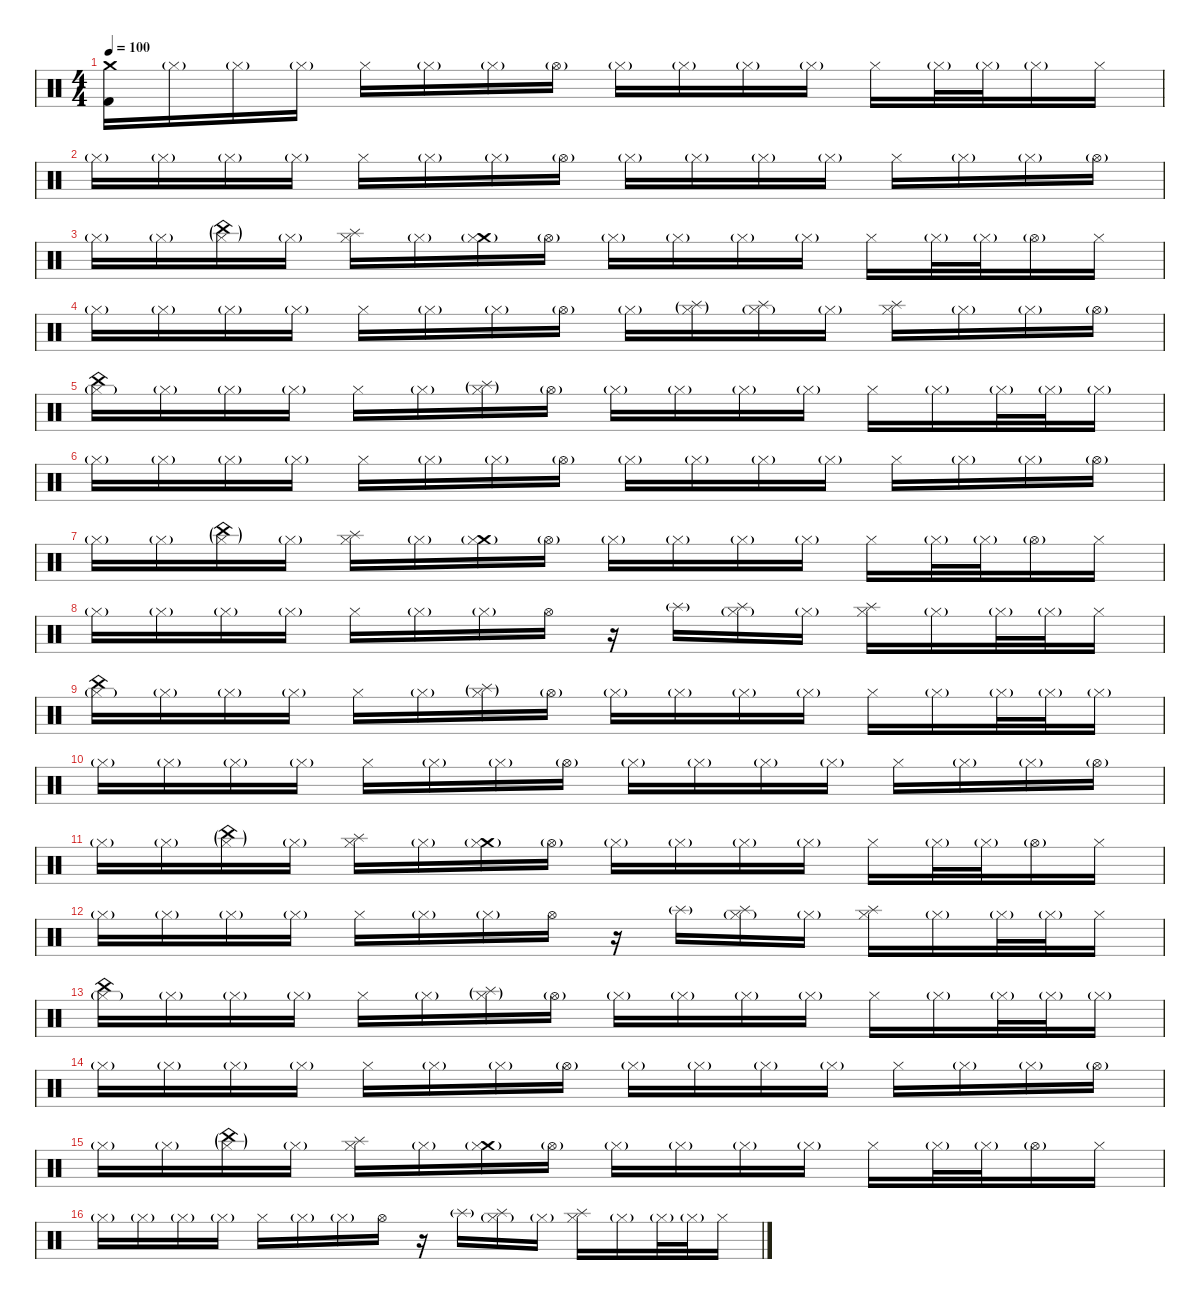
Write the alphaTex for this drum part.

\defaultSystemsLayout 4
\hideDynamics
\bracketExtendMode nobrackets
\singleTrackTrackNamePolicy hidden
\multiTrackTrackNamePolicy hidden
\firstSystemTrackNameMode fullname
\firstSystemTrackNameOrientation horizontal
\otherSystemsTrackNameOrientation horizontal
\track ("Drums" "drm.") {instrument percussion}
\staff {score}
\articulation defaults
\ts (4 4)
\beaming (8 2 2 2 2)
\tempo 100
\clef neutral
\ks c
("Crash medium (hit)" "Kick (hit) 2").16{dy f beam Down} "Hi-Hat (closed)"{g}.16{dy mf beam Down} "Hi-Hat (closed)"{g}.16{beam Down} "Hi-Hat (closed)"{g}.16{beam Down} "Hi-Hat (closed)".16{dy f beam Down} "Hi-Hat (closed)"{g}.16{dy mf beam Down} "Hi-Hat (closed)"{g}.16{beam Down} "Hi-Hat (open)"{g}.16{beam Down} "Hi-Hat (closed)"{g}.16{beam Down} "Hi-Hat (closed)"{g}.16{beam Down} "Hi-Hat (closed)"{g}.16{beam Down} "Hi-Hat (closed)"{g}.16{beam Down} "Hi-Hat (closed)".16{dy f beam Down} "Hi-Hat (closed)"{g}.32{dy mf beam Down} "Hi-Hat (closed)"{g}.32{beam Down} "Hi-Hat (closed)"{g}.16{beam Down} "Hi-Hat (closed)".16{dy f beam Down} |
"Hi-Hat (closed)"{g}.16{dy mf beam Down} "Hi-Hat (closed)"{g}.16{beam Down} "Hi-Hat (closed)"{g}.16{beam Down} "Hi-Hat (closed)"{g}.16{beam Down} "Hi-Hat (closed)".16{dy f beam Down} "Hi-Hat (closed)"{g}.16{dy mf beam Down} "Hi-Hat (closed)"{g}.16{beam Down} "Hi-Hat (open)"{g}.16{beam Down} "Hi-Hat (closed)"{g}.16{beam Down} "Hi-Hat (closed)"{g}.16{beam Down} "Hi-Hat (closed)"{g}.16{beam Down} "Hi-Hat (closed)"{g}.16{beam Down} "Hi-Hat (closed)".16{dy f beam Down} "Hi-Hat (closed)"{g}.16{dy mf beam Down} "Hi-Hat (closed)"{g}.16{beam Down} "Hi-Hat (open)"{g}.16{beam Down} |
"Hi-Hat (closed)"{g}.16{beam Down} "Hi-Hat (closed)"{g}.16{beam Down} ("China (hit)"{g} "Hi-Hat (closed)"{g}).16{beam Down} "Hi-Hat (closed)"{g}.16{beam Down} ("Splash (hit)" "Hi-Hat (closed)").16{dy f beam Down} "Hi-Hat (closed)"{g}.16{dy mf beam Down} ("Crash medium (hit)"{g} "Hi-Hat (closed)"{g}).16{beam Down} "Hi-Hat (open)"{g}.16{beam Down} "Hi-Hat (closed)"{g}.16{beam Down} "Hi-Hat (closed)"{g}.16{beam Down} "Hi-Hat (closed)"{g}.16{beam Down} "Hi-Hat (closed)"{g}.16{beam Down} "Hi-Hat (closed)".16{dy f beam Down} "Hi-Hat (closed)"{g}.32{dy mf beam Down} "Hi-Hat (closed)"{g}.32{beam Down} "Hi-Hat (open)"{g}.16{beam Down} "Hi-Hat (closed)".16{dy f beam Down} |
"Hi-Hat (closed)"{g}.16{dy mf beam Down} "Hi-Hat (closed)"{g}.16{beam Down} "Hi-Hat (closed)"{g}.16{beam Down} "Hi-Hat (closed)"{g}.16{beam Down} "Hi-Hat (closed)".16{dy f beam Down} "Hi-Hat (closed)"{g}.16{dy mf beam Down} "Hi-Hat (closed)"{g}.16{beam Down} "Hi-Hat (open)"{g}.16{beam Down} "Hi-Hat (closed)"{g}.16{beam Down} ("Splash (hit)"{g} "Hi-Hat (closed)"{g}).16{beam Down} ("Splash (hit)" "Hi-Hat (closed)"{g}).16{dy f beam Down} "Hi-Hat (closed)"{g}.16{dy mf beam Down} ("Splash (hit)" "Hi-Hat (closed)").16{dy f beam Down} "Hi-Hat (closed)"{g}.16{dy mf beam Down} "Hi-Hat (closed)"{g}.16{beam Down} "Hi-Hat (open)"{g}.16{beam Down} |
("China (hit)" "Hi-Hat (closed)"{g}).16{dy f beam Down} "Hi-Hat (closed)"{g}.16{dy mf beam Down} "Hi-Hat (closed)"{g}.16{beam Down} "Hi-Hat (closed)"{g}.16{beam Down} "Hi-Hat (closed)".16{dy f beam Down} "Hi-Hat (closed)"{g}.16{dy mf beam Down} ("Splash (hit)"{g} "Hi-Hat (closed)"{g}).16{beam Down} "Hi-Hat (open)"{g}.16{beam Down} "Hi-Hat (closed)"{g}.16{beam Down} "Hi-Hat (closed)"{g}.16{beam Down} "Hi-Hat (closed)"{g}.16{beam Down} "Hi-Hat (closed)"{g}.16{beam Down} "Hi-Hat (closed)".16{dy f beam Down} "Hi-Hat (closed)"{g}.16{dy mf beam Down} "Hi-Hat (closed)"{g}.32{beam Down} "Hi-Hat (closed)"{g}.32{beam Down} "Hi-Hat (closed)"{g}.16{beam Down} |
"Hi-Hat (closed)"{g}.16{beam Down} "Hi-Hat (closed)"{g}.16{beam Down} "Hi-Hat (closed)"{g}.16{beam Down} "Hi-Hat (closed)"{g}.16{beam Down} "Hi-Hat (closed)".16{dy f beam Down} "Hi-Hat (closed)"{g}.16{dy mf beam Down} "Hi-Hat (closed)"{g}.16{beam Down} "Hi-Hat (open)"{g}.16{beam Down} "Hi-Hat (closed)"{g}.16{beam Down} "Hi-Hat (closed)"{g}.16{beam Down} "Hi-Hat (closed)"{g}.16{beam Down} "Hi-Hat (closed)"{g}.16{beam Down} "Hi-Hat (closed)".16{dy f beam Down} "Hi-Hat (closed)"{g}.16{dy mf beam Down} "Hi-Hat (closed)"{g}.16{beam Down} "Hi-Hat (open)"{g}.16{beam Down} |
"Hi-Hat (closed)"{g}.16{beam Down} "Hi-Hat (closed)"{g}.16{beam Down} ("China (hit)"{g} "Hi-Hat (closed)"{g}).16{beam Down} "Hi-Hat (closed)"{g}.16{beam Down} ("Splash (hit)" "Hi-Hat (closed)").16{dy f beam Down} "Hi-Hat (closed)"{g}.16{dy mf beam Down} ("Crash medium (hit)"{g} "Hi-Hat (closed)"{g}).16{beam Down} "Hi-Hat (open)"{g}.16{beam Down} "Hi-Hat (closed)"{g}.16{beam Down} "Hi-Hat (closed)"{g}.16{beam Down} "Hi-Hat (closed)"{g}.16{beam Down} "Hi-Hat (closed)"{g}.16{beam Down} "Hi-Hat (closed)".16{dy f beam Down} "Hi-Hat (closed)"{g}.32{dy mf beam Down} "Hi-Hat (closed)"{g}.32{beam Down} "Hi-Hat (open)"{g}.16{beam Down} "Hi-Hat (closed)".16{dy f beam Down} |
"Hi-Hat (closed)"{g}.16{dy mf beam Down} "Hi-Hat (closed)"{g}.16{beam Down} "Hi-Hat (closed)"{g}.16{beam Down} "Hi-Hat (closed)"{g}.16{beam Down} "Hi-Hat (closed)".16{dy f beam Down} "Hi-Hat (closed)"{g}.16{dy mf beam Down} "Hi-Hat (closed)"{g}.16{beam Down} "Hi-Hat (open)".16{dy f beam Down} r.16{beam Down} "Splash (hit)"{g}.16{dy mf beam Down} ("Splash (hit)" "Hi-Hat (closed)"{g}).16{dy f beam Down} "Hi-Hat (closed)"{g}.16{dy mf beam Down} ("Splash (hit)" "Hi-Hat (closed)").16{dy f beam Down} "Hi-Hat (closed)"{g}.16{dy mf beam Down} "Hi-Hat (closed)"{g}.32{beam Down} "Hi-Hat (closed)"{g}.32{beam Down} "Hi-Hat (closed)".16{dy f beam Down} |
("China (hit)" "Hi-Hat (closed)"{g}).16{beam Down} "Hi-Hat (closed)"{g}.16{dy mf beam Down} "Hi-Hat (closed)"{g}.16{beam Down} "Hi-Hat (closed)"{g}.16{beam Down} "Hi-Hat (closed)".16{dy f beam Down} "Hi-Hat (closed)"{g}.16{dy mf beam Down} ("Splash (hit)"{g} "Hi-Hat (closed)"{g}).16{beam Down} "Hi-Hat (open)"{g}.16{beam Down} "Hi-Hat (closed)"{g}.16{beam Down} "Hi-Hat (closed)"{g}.16{beam Down} "Hi-Hat (closed)"{g}.16{beam Down} "Hi-Hat (closed)"{g}.16{beam Down} "Hi-Hat (closed)".16{dy f beam Down} "Hi-Hat (closed)"{g}.16{dy mf beam Down} "Hi-Hat (closed)"{g}.32{beam Down} "Hi-Hat (closed)"{g}.32{beam Down} "Hi-Hat (closed)"{g}.16{beam Down} |
"Hi-Hat (closed)"{g}.16{beam Down} "Hi-Hat (closed)"{g}.16{beam Down} "Hi-Hat (closed)"{g}.16{beam Down} "Hi-Hat (closed)"{g}.16{beam Down} "Hi-Hat (closed)".16{dy f beam Down} "Hi-Hat (closed)"{g}.16{dy mf beam Down} "Hi-Hat (closed)"{g}.16{beam Down} "Hi-Hat (open)"{g}.16{beam Down} "Hi-Hat (closed)"{g}.16{beam Down} "Hi-Hat (closed)"{g}.16{beam Down} "Hi-Hat (closed)"{g}.16{beam Down} "Hi-Hat (closed)"{g}.16{beam Down} "Hi-Hat (closed)".16{dy f beam Down} "Hi-Hat (closed)"{g}.16{dy mf beam Down} "Hi-Hat (closed)"{g}.16{beam Down} "Hi-Hat (open)"{g}.16{beam Down} |
"Hi-Hat (closed)"{g}.16{beam Down} "Hi-Hat (closed)"{g}.16{beam Down} ("China (hit)"{g} "Hi-Hat (closed)"{g}).16{beam Down} "Hi-Hat (closed)"{g}.16{beam Down} ("Splash (hit)" "Hi-Hat (closed)").16{dy f beam Down} "Hi-Hat (closed)"{g}.16{dy mf beam Down} ("Crash medium (hit)"{g} "Hi-Hat (closed)"{g}).16{beam Down} "Hi-Hat (open)"{g}.16{beam Down} "Hi-Hat (closed)"{g}.16{beam Down} "Hi-Hat (closed)"{g}.16{beam Down} "Hi-Hat (closed)"{g}.16{beam Down} "Hi-Hat (closed)"{g}.16{beam Down} "Hi-Hat (closed)".16{dy f beam Down} "Hi-Hat (closed)"{g}.32{dy mf beam Down} "Hi-Hat (closed)"{g}.32{beam Down} "Hi-Hat (open)"{g}.16{beam Down} "Hi-Hat (closed)".16{dy f beam Down} |
"Hi-Hat (closed)"{g}.16{dy mf beam Down} "Hi-Hat (closed)"{g}.16{beam Down} "Hi-Hat (closed)"{g}.16{beam Down} "Hi-Hat (closed)"{g}.16{beam Down} "Hi-Hat (closed)".16{dy f beam Down} "Hi-Hat (closed)"{g}.16{dy mf beam Down} "Hi-Hat (closed)"{g}.16{beam Down} "Hi-Hat (open)".16{dy f beam Down} r.16{beam Down} "Splash (hit)"{g}.16{dy mf beam Down} ("Splash (hit)" "Hi-Hat (closed)"{g}).16{dy f beam Down} "Hi-Hat (closed)"{g}.16{dy mf beam Down} ("Splash (hit)" "Hi-Hat (closed)").16{dy f beam Down} "Hi-Hat (closed)"{g}.16{dy mf beam Down} "Hi-Hat (closed)"{g}.32{beam Down} "Hi-Hat (closed)"{g}.32{beam Down} "Hi-Hat (closed)".16{dy f beam Down} |
("China (hit)" "Hi-Hat (closed)"{g}).16{beam Down} "Hi-Hat (closed)"{g}.16{dy mf beam Down} "Hi-Hat (closed)"{g}.16{beam Down} "Hi-Hat (closed)"{g}.16{beam Down} "Hi-Hat (closed)".16{dy f beam Down} "Hi-Hat (closed)"{g}.16{dy mf beam Down} ("Splash (hit)"{g} "Hi-Hat (closed)"{g}).16{beam Down} "Hi-Hat (open)"{g}.16{beam Down} "Hi-Hat (closed)"{g}.16{beam Down} "Hi-Hat (closed)"{g}.16{beam Down} "Hi-Hat (closed)"{g}.16{beam Down} "Hi-Hat (closed)"{g}.16{beam Down} "Hi-Hat (closed)".16{dy f beam Down} "Hi-Hat (closed)"{g}.16{dy mf beam Down} "Hi-Hat (closed)"{g}.32{beam Down} "Hi-Hat (closed)"{g}.32{beam Down} "Hi-Hat (closed)"{g}.16{beam Down} |
"Hi-Hat (closed)"{g}.16{beam Down} "Hi-Hat (closed)"{g}.16{beam Down} "Hi-Hat (closed)"{g}.16{beam Down} "Hi-Hat (closed)"{g}.16{beam Down} "Hi-Hat (closed)".16{dy f beam Down} "Hi-Hat (closed)"{g}.16{dy mf beam Down} "Hi-Hat (closed)"{g}.16{beam Down} "Hi-Hat (open)"{g}.16{beam Down} "Hi-Hat (closed)"{g}.16{beam Down} "Hi-Hat (closed)"{g}.16{beam Down} "Hi-Hat (closed)"{g}.16{beam Down} "Hi-Hat (closed)"{g}.16{beam Down} "Hi-Hat (closed)".16{dy f beam Down} "Hi-Hat (closed)"{g}.16{dy mf beam Down} "Hi-Hat (closed)"{g}.16{beam Down} "Hi-Hat (open)"{g}.16{beam Down} |
"Hi-Hat (closed)"{g}.16{beam Down} "Hi-Hat (closed)"{g}.16{beam Down} ("China (hit)"{g} "Hi-Hat (closed)"{g}).16{beam Down} "Hi-Hat (closed)"{g}.16{beam Down} ("Splash (hit)" "Hi-Hat (closed)").16{dy f beam Down} "Hi-Hat (closed)"{g}.16{dy mf beam Down} ("Crash medium (hit)"{g} "Hi-Hat (closed)"{g}).16{beam Down} "Hi-Hat (open)"{g}.16{beam Down} "Hi-Hat (closed)"{g}.16{beam Down} "Hi-Hat (closed)"{g}.16{beam Down} "Hi-Hat (closed)"{g}.16{beam Down} "Hi-Hat (closed)"{g}.16{beam Down} "Hi-Hat (closed)".16{dy f beam Down} "Hi-Hat (closed)"{g}.32{dy mf beam Down} "Hi-Hat (closed)"{g}.32{beam Down} "Hi-Hat (open)"{g}.16{beam Down} "Hi-Hat (closed)".16{dy f beam Down} |
"Hi-Hat (closed)"{g}.16{dy mf beam Down} "Hi-Hat (closed)"{g}.16{beam Down} "Hi-Hat (closed)"{g}.16{beam Down} "Hi-Hat (closed)"{g}.16{beam Down} "Hi-Hat (closed)".16{dy f beam Down} "Hi-Hat (closed)"{g}.16{dy mf beam Down} "Hi-Hat (closed)"{g}.16{beam Down} "Hi-Hat (open)".16{dy f beam Down} r.16{beam Down} "Splash (hit)"{g}.16{dy mf beam Down} ("Splash (hit)" "Hi-Hat (closed)"{g}).16{dy f beam Down} "Hi-Hat (closed)"{g}.16{dy mf beam Down} ("Splash (hit)" "Hi-Hat (closed)").16{dy f beam Down} "Hi-Hat (closed)"{g}.16{dy mf beam Down} "Hi-Hat (closed)"{g}.32{beam Down} "Hi-Hat (closed)"{g}.32{beam Down} "Hi-Hat (closed)".16{dy f beam Down}
